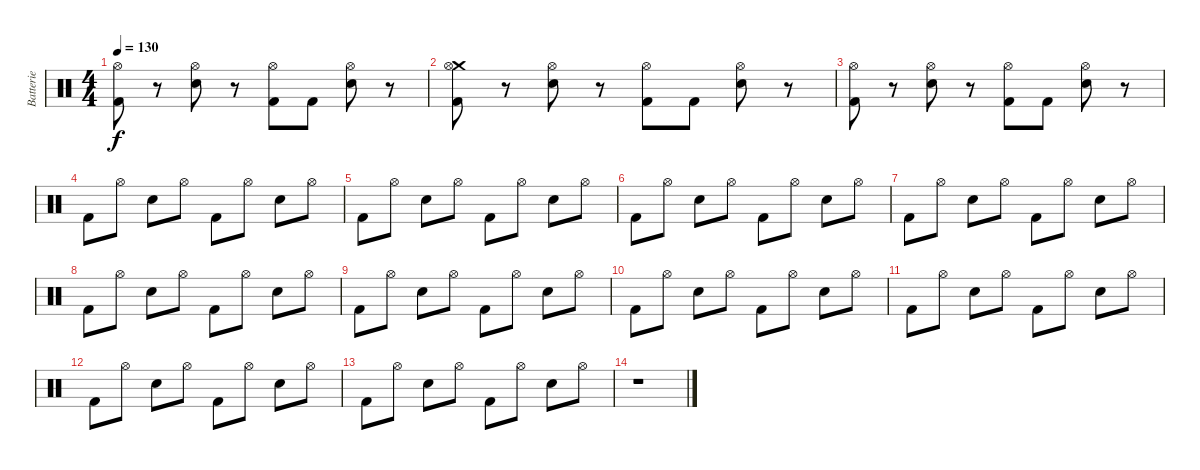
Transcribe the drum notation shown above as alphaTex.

\track ("Batterie" "Batterie") {instrument percussion}
\staff {score}
\articulation defaults
\ts (4 4)
\tempo 130
\clef neutral
\ks c
("Hi-Hat (open)" "Kick (hit) 2").8{dy f} r.8 ("Hi-Hat (open)" "Electric Snare (hit)").8 r.8 ("Hi-Hat (open)" "Kick (hit) 2").8 "Kick (hit) 2".8 ("Hi-Hat (open)" "Electric Snare (hit)").8 r.8 |
("Crash medium (hit)" "Hi-Hat (open)" "Kick (hit) 2").8 r.8 ("Hi-Hat (open)" "Electric Snare (hit)").8 r.8 ("Hi-Hat (open)" "Kick (hit) 2").8 "Kick (hit) 2".8 ("Hi-Hat (open)" "Electric Snare (hit)").8 r.8 |
("Hi-Hat (open)" "Kick (hit) 2").8 r.8 ("Hi-Hat (open)" "Electric Snare (hit)").8 r.8 ("Hi-Hat (open)" "Kick (hit) 2").8 "Kick (hit) 2".8 ("Hi-Hat (open)" "Electric Snare (hit)").8 r.8 |
"Kick (hit) 2".8 "Hi-Hat (open)".8 "Electric Snare (hit)".8 "Hi-Hat (open)".8 "Kick (hit) 2".8 "Hi-Hat (open)".8 "Electric Snare (hit)".8 "Hi-Hat (open)".8 |
"Kick (hit) 2".8 "Hi-Hat (open)".8 "Electric Snare (hit)".8 "Hi-Hat (open)".8 "Kick (hit) 2".8 "Hi-Hat (open)".8 "Electric Snare (hit)".8 "Hi-Hat (open)".8 |
"Kick (hit) 2".8 "Hi-Hat (open)".8 "Electric Snare (hit)".8 "Hi-Hat (open)".8 "Kick (hit) 2".8 "Hi-Hat (open)".8 "Electric Snare (hit)".8 "Hi-Hat (open)".8 |
"Kick (hit) 2".8 "Hi-Hat (open)".8 "Electric Snare (hit)".8 "Hi-Hat (open)".8 "Kick (hit) 2".8 "Hi-Hat (open)".8 "Electric Snare (hit)".8 "Hi-Hat (open)".8 |
"Kick (hit) 2".8 "Hi-Hat (open)".8 "Electric Snare (hit)".8 "Hi-Hat (open)".8 "Kick (hit) 2".8 "Hi-Hat (open)".8 "Electric Snare (hit)".8 "Hi-Hat (open)".8 |
"Kick (hit) 2".8 "Hi-Hat (open)".8 "Electric Snare (hit)".8 "Hi-Hat (open)".8 "Kick (hit) 2".8 "Hi-Hat (open)".8 "Electric Snare (hit)".8 "Hi-Hat (open)".8 |
"Kick (hit) 2".8 "Hi-Hat (open)".8 "Electric Snare (hit)".8 "Hi-Hat (open)".8 "Kick (hit) 2".8 "Hi-Hat (open)".8 "Electric Snare (hit)".8 "Hi-Hat (open)".8 |
"Kick (hit) 2".8 "Hi-Hat (open)".8 "Electric Snare (hit)".8 "Hi-Hat (open)".8 "Kick (hit) 2".8 "Hi-Hat (open)".8 "Electric Snare (hit)".8 "Hi-Hat (open)".8 |
"Kick (hit) 2".8 "Hi-Hat (open)".8 "Electric Snare (hit)".8 "Hi-Hat (open)".8 "Kick (hit) 2".8 "Hi-Hat (open)".8 "Electric Snare (hit)".8 "Hi-Hat (open)".8 |
"Kick (hit) 2".8 "Hi-Hat (open)".8 "Electric Snare (hit)".8 "Hi-Hat (open)".8 "Kick (hit) 2".8 "Hi-Hat (open)".8 "Electric Snare (hit)".8 "Hi-Hat (open)".8 |
r.1
